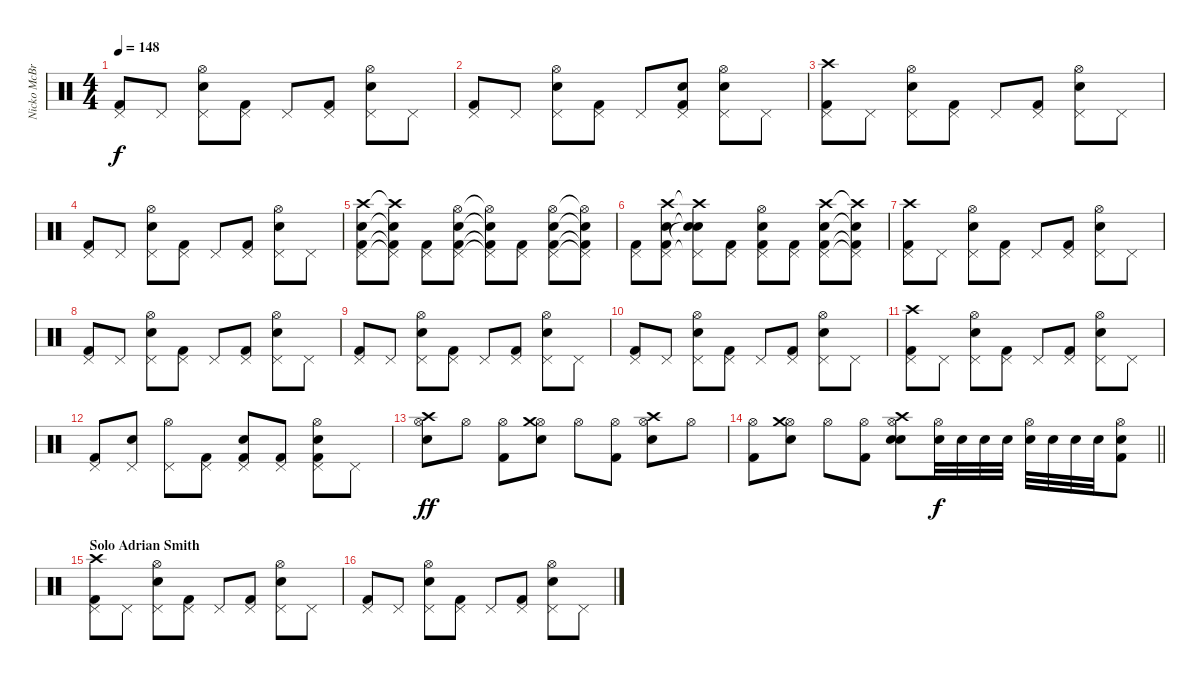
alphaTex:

\track ("Nicko McBrain" "Nicko McBr") {instrument percussion}
\staff {score}
\articulation defaults
\ts (4 4)
\tempo 148
\clef neutral
\ks c
("Kick (hit) 2" "Pedal Hi-Hat (hit)").8{dy f} "Pedal Hi-Hat (hit)".8 ("Snare (hit) 2" "Pedal Hi-Hat (hit)" "Hi-Hat (open)").8 ("Kick (hit) 2" "Pedal Hi-Hat (hit)").8 "Pedal Hi-Hat (hit)".8 ("Kick (hit) 2" "Pedal Hi-Hat (hit)").8 ("Snare (hit) 2" "Pedal Hi-Hat (hit)" "Hi-Hat (open)").8 "Pedal Hi-Hat (hit)".8 |
("Kick (hit) 2" "Pedal Hi-Hat (hit)").8 "Pedal Hi-Hat (hit)".8 ("Snare (hit) 2" "Pedal Hi-Hat (hit)" "Hi-Hat (open)").8 ("Kick (hit) 2" "Pedal Hi-Hat (hit)").8 "Pedal Hi-Hat (hit)".8 ("Kick (hit) 2" "Pedal Hi-Hat (hit)" "Snare (hit) 2").8 ("Snare (hit) 2" "Pedal Hi-Hat (hit)" "Hi-Hat (open)").8 "Pedal Hi-Hat (hit)".8 |
("Kick (hit) 2" "Pedal Hi-Hat (hit)" "Crash high (hit)").8 "Pedal Hi-Hat (hit)".8 ("Snare (hit) 2" "Pedal Hi-Hat (hit)" "Hi-Hat (open)").8 ("Kick (hit) 2" "Pedal Hi-Hat (hit)").8 "Pedal Hi-Hat (hit)".8 ("Kick (hit) 2" "Pedal Hi-Hat (hit)").8 ("Snare (hit) 2" "Pedal Hi-Hat (hit)" "Hi-Hat (open)").8 "Pedal Hi-Hat (hit)".8 |
("Kick (hit) 2" "Pedal Hi-Hat (hit)").8 "Pedal Hi-Hat (hit)".8 ("Snare (hit) 2" "Pedal Hi-Hat (hit)" "Hi-Hat (open)").8 ("Kick (hit) 2" "Pedal Hi-Hat (hit)").8 "Pedal Hi-Hat (hit)".8 ("Kick (hit) 2" "Pedal Hi-Hat (hit)").8 ("Snare (hit) 2" "Pedal Hi-Hat (hit)" "Hi-Hat (open)").8 "Pedal Hi-Hat (hit)".8 |
("Kick (hit) 2" "Pedal Hi-Hat (hit)" "Crash high (hit)" "Snare (hit) 2").8 ("Kick (hit) 2"{t} "Pedal Hi-Hat (hit)"{t} "Crash high (hit)"{t} "Snare (hit) 2"{t}).8 ("Kick (hit) 2" "Pedal Hi-Hat (hit)").8 ("Kick (hit) 2" "Pedal Hi-Hat (hit)" "Hi-Hat (open)" "Snare (hit) 2").8 ("Kick (hit) 2"{t} "Pedal Hi-Hat (hit)"{t} "Hi-Hat (open)"{t} "Snare (hit) 2"{t}).8 ("Kick (hit) 2" "Pedal Hi-Hat (hit)").8 ("Kick (hit) 2" "Pedal Hi-Hat (hit)" "Hi-Hat (open)" "Snare (hit) 2").8 ("Kick (hit) 2"{t} "Pedal Hi-Hat (hit)"{t} "Hi-Hat (open)"{t} "Snare (hit) 2"{t}).8 |
("Kick (hit) 2" "Pedal Hi-Hat (hit)").8 ("Kick (hit) 2" "Pedal Hi-Hat (hit)" "Crash high (hit)" "Snare (hit) 2").8 ("Snare (hit) 2"{t} "Pedal Hi-Hat (hit)"{t} "Crash high (hit)"{t} "Snare (hit) 2"{t}).8 ("Kick (hit) 2" "Pedal Hi-Hat (hit)").8 ("Kick (hit) 2" "Pedal Hi-Hat (hit)" "Hi-Hat (open)" "Snare (hit) 2").8 ("Kick (hit) 2" "Pedal Hi-Hat (hit)").8 ("Kick (hit) 2" "Pedal Hi-Hat (hit)" "Crash high (hit)" "Snare (hit) 2").8 ("Kick (hit) 2"{t} "Pedal Hi-Hat (hit)"{t} "Crash high (hit)"{t} "Snare (hit) 2"{t}).8 |
("Kick (hit) 2" "Pedal Hi-Hat (hit)" "Crash high (hit)").8 "Pedal Hi-Hat (hit)".8 ("Snare (hit) 2" "Pedal Hi-Hat (hit)" "Hi-Hat (open)").8 ("Kick (hit) 2" "Pedal Hi-Hat (hit)").8 "Pedal Hi-Hat (hit)".8 ("Kick (hit) 2" "Pedal Hi-Hat (hit)").8 ("Snare (hit) 2" "Pedal Hi-Hat (hit)" "Hi-Hat (open)").8 "Pedal Hi-Hat (hit)".8 |
("Kick (hit) 2" "Pedal Hi-Hat (hit)").8 "Pedal Hi-Hat (hit)".8 ("Snare (hit) 2" "Pedal Hi-Hat (hit)" "Hi-Hat (open)").8 ("Kick (hit) 2" "Pedal Hi-Hat (hit)").8 "Pedal Hi-Hat (hit)".8 ("Kick (hit) 2" "Pedal Hi-Hat (hit)").8 ("Snare (hit) 2" "Pedal Hi-Hat (hit)" "Hi-Hat (open)").8 "Pedal Hi-Hat (hit)".8 |
("Kick (hit) 2" "Pedal Hi-Hat (hit)").8 "Pedal Hi-Hat (hit)".8 ("Snare (hit) 2" "Pedal Hi-Hat (hit)" "Hi-Hat (open)").8 ("Kick (hit) 2" "Pedal Hi-Hat (hit)").8 "Pedal Hi-Hat (hit)".8 ("Kick (hit) 2" "Pedal Hi-Hat (hit)").8 ("Snare (hit) 2" "Pedal Hi-Hat (hit)" "Hi-Hat (open)").8 "Pedal Hi-Hat (hit)".8 |
("Kick (hit) 2" "Pedal Hi-Hat (hit)").8 "Pedal Hi-Hat (hit)".8 ("Snare (hit) 2" "Pedal Hi-Hat (hit)" "Hi-Hat (open)").8 ("Kick (hit) 2" "Pedal Hi-Hat (hit)").8 "Pedal Hi-Hat (hit)".8 ("Kick (hit) 2" "Pedal Hi-Hat (hit)").8 ("Snare (hit) 2" "Pedal Hi-Hat (hit)" "Hi-Hat (open)").8 "Pedal Hi-Hat (hit)".8 |
("Kick (hit) 2" "Pedal Hi-Hat (hit)" "Crash high (hit)").8 "Pedal Hi-Hat (hit)".8 ("Snare (hit) 2" "Pedal Hi-Hat (hit)" "Hi-Hat (open)").8 ("Kick (hit) 2" "Pedal Hi-Hat (hit)").8 "Pedal Hi-Hat (hit)".8 ("Kick (hit) 2" "Pedal Hi-Hat (hit)").8 ("Snare (hit) 2" "Pedal Hi-Hat (hit)" "Hi-Hat (open)").8 "Pedal Hi-Hat (hit)".8 |
("Kick (hit) 2" "Pedal Hi-Hat (hit)").8 ("Pedal Hi-Hat (hit)" "Snare (hit) 2").8 ("Pedal Hi-Hat (hit)" "Hi-Hat (open)").8 ("Kick (hit) 2" "Pedal Hi-Hat (hit)").8 ("Pedal Hi-Hat (hit)" "Kick (hit) 2" "Snare (hit) 2").8 ("Kick (hit) 2" "Pedal Hi-Hat (hit)").8 ("Snare (hit) 2" "Pedal Hi-Hat (hit)" "Hi-Hat (open)" "Kick (hit) 2").8 "Pedal Hi-Hat (hit)".8 |
("Snare (hit) 2" "Hi-Hat (open)" "Crash high (hit)").8{dy ff} "Hi-Hat (open)".8 ("Kick (hit) 2" "Hi-Hat (open)").8 ("Snare (hit) 2" "Hi-Hat (open)" "Crash medium (hit)").8 "Hi-Hat (open)".8 ("Kick (hit) 2" "Hi-Hat (open)").8 ("Snare (hit) 2" "Hi-Hat (open)" "Crash high (hit)").8 "Hi-Hat (open)".8 |
\barLineRight lightlight
("Kick (hit) 2" "Hi-Hat (open)").8 ("Snare (hit) 2" "Hi-Hat (open)" "Crash medium (hit)").8 "Hi-Hat (open)".8 ("Kick (hit) 2" "Hi-Hat (open)").8 ("Snare (hit) 2" "Hi-Hat (open)" "Crash high (hit)" "Snare (hit) 2").8 ("Hi-Hat (open)" "Snare (hit) 2").32{dy f} "Snare (hit) 2".32 "Snare (hit) 2".32 "Snare (hit) 2".32 ("Hi-Hat (open)" "Snare (hit) 2").32 "Snare (hit) 2".32 "Snare (hit) 2".32 "Snare (hit) 2".32 ("Kick (hit) 2" "Hi-Hat (open)" "Snare (hit) 2").8 |
\section ("" "Solo Adrian Smith")
("Kick (hit) 2" "Pedal Hi-Hat (hit)" "Crash high (hit)").8 "Pedal Hi-Hat (hit)".8 ("Snare (hit) 2" "Pedal Hi-Hat (hit)" "Hi-Hat (open)").8 ("Kick (hit) 2" "Pedal Hi-Hat (hit)").8 "Pedal Hi-Hat (hit)".8 ("Kick (hit) 2" "Pedal Hi-Hat (hit)").8 ("Snare (hit) 2" "Pedal Hi-Hat (hit)" "Hi-Hat (open)").8 "Pedal Hi-Hat (hit)".8 |
("Kick (hit) 2" "Pedal Hi-Hat (hit)").8 "Pedal Hi-Hat (hit)".8 ("Snare (hit) 2" "Pedal Hi-Hat (hit)" "Hi-Hat (open)").8 ("Kick (hit) 2" "Pedal Hi-Hat (hit)").8 "Pedal Hi-Hat (hit)".8 ("Kick (hit) 2" "Pedal Hi-Hat (hit)").8 ("Snare (hit) 2" "Pedal Hi-Hat (hit)" "Hi-Hat (open)").8 "Pedal Hi-Hat (hit)".8
